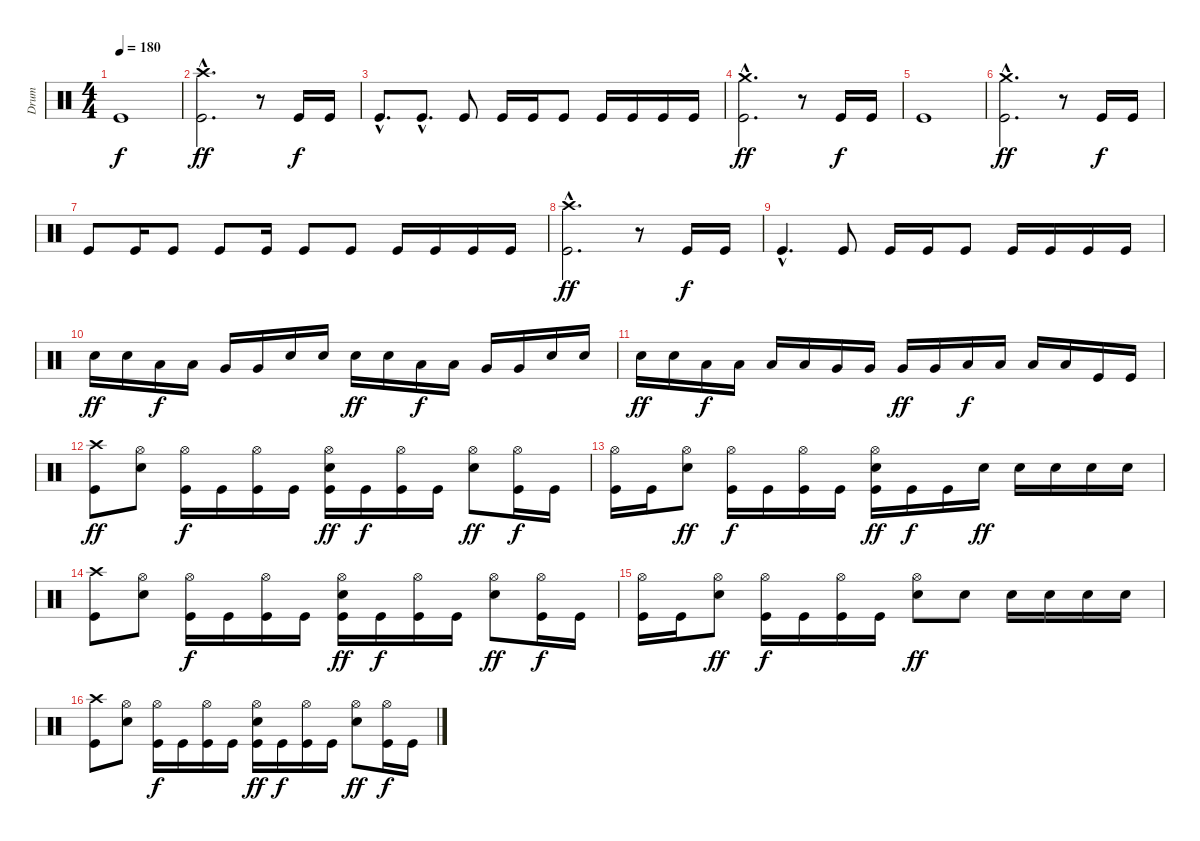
\track ("Drum" "Drum") {instrument percussion}
\staff {score}
\articulation defaults
\ts (4 4)
\tempo 180
\clef neutral
\ks c "Kick (hit)".1{dy f}
|
("Kick (hit)"{hac} "Crash high (hit)"{hac}).2{d dy ff} r.8 "Kick (hit)".16{dy f} "Kick (hit)".16 |
"Kick (hit)"{hac}.8{d} "Kick (hit)"{hac}.8{d} "Kick (hit)".8 "Kick (hit)".16 "Kick (hit)".16 "Kick (hit)".8 "Kick (hit)".16 "Kick (hit)".16 "Kick (hit)".16 "Kick (hit)".16 |
("Kick (hit)"{hac} "Crash medium (hit)"{hac}).2{d dy ff} r.8 "Kick (hit)".16{dy f} "Kick (hit)".16 |
"Kick (hit)".1 |
("Kick (hit)"{hac} "Crash medium (hit)"{hac}).2{d dy ff} r.8 "Kick (hit)".16{dy f} "Kick (hit)".16 |
"Kick (hit)".8 "Kick (hit)".16 "Kick (hit)".8 "Kick (hit)".8 "Kick (hit)".16 "Kick (hit)".8 "Kick (hit)".8 "Kick (hit)".16 "Kick (hit)".16 "Kick (hit)".16 "Kick (hit)".16 |
("Kick (hit)"{hac} "Crash high (hit)"{hac}).2{d dy ff} r.8 "Kick (hit)".16{dy f} "Kick (hit)".16 |
"Kick (hit)"{hac}.4{d} "Kick (hit)".8 "Kick (hit)".16 "Kick (hit)".16 "Kick (hit)".8 "Kick (hit)".16 "Kick (hit)".16 "Kick (hit)".16 "Kick (hit)".16 |
"Electric Snare (hit)".16{dy ff} "Electric Snare (hit)".16 "Low Tom (hit)".16{dy f} "Low Tom (hit)".16 "Very Low Tom (hit)".16 "Very Low Tom (hit)".16 "Electric Snare (hit)".16 "Electric Snare (hit)".16 "Electric Snare (hit)".16{dy ff} "Electric Snare (hit)".16 "Low Tom (hit)".16{dy f} "Low Tom (hit)".16 "Very Low Tom (hit)".16 "Very Low Tom (hit)".16 "Electric Snare (hit)".16 "Electric Snare (hit)".16 |
"Electric Snare (hit)".16{dy ff} "Electric Snare (hit)".16 "Low Tom (hit)".16{dy f} "Low Tom (hit)".16 "Low Tom (hit)".16 "Low Tom (hit)".16 "Very Low Tom (hit)".16 "Very Low Tom (hit)".16 "Very Low Tom (hit)".16{dy ff} "Very Low Tom (hit)".16 "Low Floor Tom (hit)".16{dy f} "Low Floor Tom (hit)".16 "Low Floor Tom (hit)".16 "Low Floor Tom (hit)".16 "Kick (hit)".16 "Kick (hit)".16 |
("Kick (hit)" "Crash high (hit)").8{dy ff} ("Electric Snare (hit)" "Hi-Hat (open)").8 ("Kick (hit)" "Hi-Hat (open)").16{dy f} "Kick (hit)".16 ("Kick (hit)" "Hi-Hat (open)").16 "Kick (hit)".16 ("Kick (hit)" "Electric Snare (hit)" "Hi-Hat (open)").16{dy ff} "Kick (hit)".16{dy f} ("Kick (hit)" "Hi-Hat (open)").16 "Kick (hit)".16 ("Electric Snare (hit)" "Hi-Hat (open)").8{dy ff} ("Kick (hit)" "Hi-Hat (open)").16{dy f} "Kick (hit)".16 |
("Kick (hit)" "Hi-Hat (open)").16 "Kick (hit)".16 ("Electric Snare (hit)" "Hi-Hat (open)").8{dy ff} ("Kick (hit)" "Hi-Hat (open)").16{dy f} "Kick (hit)".16 ("Kick (hit)" "Hi-Hat (open)").16 "Kick (hit)".16 ("Kick (hit)" "Electric Snare (hit)" "Hi-Hat (open)").16{dy ff} "Kick (hit)".16{dy f} "Kick (hit)".16 "Electric Snare (hit)".16{dy ff} "Electric Snare (hit)".16 "Electric Snare (hit)".16 "Electric Snare (hit)".16 "Electric Snare (hit)".16 |
("Kick (hit)" "Crash high (hit)").8 ("Electric Snare (hit)" "Hi-Hat (open)").8 ("Kick (hit)" "Hi-Hat (open)").16{dy f} "Kick (hit)".16 ("Kick (hit)" "Hi-Hat (open)").16 "Kick (hit)".16 ("Kick (hit)" "Electric Snare (hit)" "Hi-Hat (open)").16{dy ff} "Kick (hit)".16{dy f} ("Kick (hit)" "Hi-Hat (open)").16 "Kick (hit)".16 ("Electric Snare (hit)" "Hi-Hat (open)").8{dy ff} ("Kick (hit)" "Hi-Hat (open)").16{dy f} "Kick (hit)".16 |
("Kick (hit)" "Hi-Hat (open)").16 "Kick (hit)".16 ("Electric Snare (hit)" "Hi-Hat (open)").8{dy ff} ("Kick (hit)" "Hi-Hat (open)").16{dy f} "Kick (hit)".16 ("Kick (hit)" "Hi-Hat (open)").16 "Kick (hit)".16 ("Electric Snare (hit)" "Hi-Hat (open)").8{dy ff} "Electric Snare (hit)".8 "Electric Snare (hit)".16 "Electric Snare (hit)".16 "Electric Snare (hit)".16 "Electric Snare (hit)".16 |
("Kick (hit)" "Crash high (hit)").8 ("Electric Snare (hit)" "Hi-Hat (open)").8 ("Kick (hit)" "Hi-Hat (open)").16{dy f} "Kick (hit)".16 ("Kick (hit)" "Hi-Hat (open)").16 "Kick (hit)".16 ("Kick (hit)" "Electric Snare (hit)" "Hi-Hat (open)").16{dy ff} "Kick (hit)".16{dy f} ("Kick (hit)" "Hi-Hat (open)").16 "Kick (hit)".16 ("Electric Snare (hit)" "Hi-Hat (open)").8{dy ff} ("Kick (hit)" "Hi-Hat (open)").16{dy f} "Kick (hit)".16
